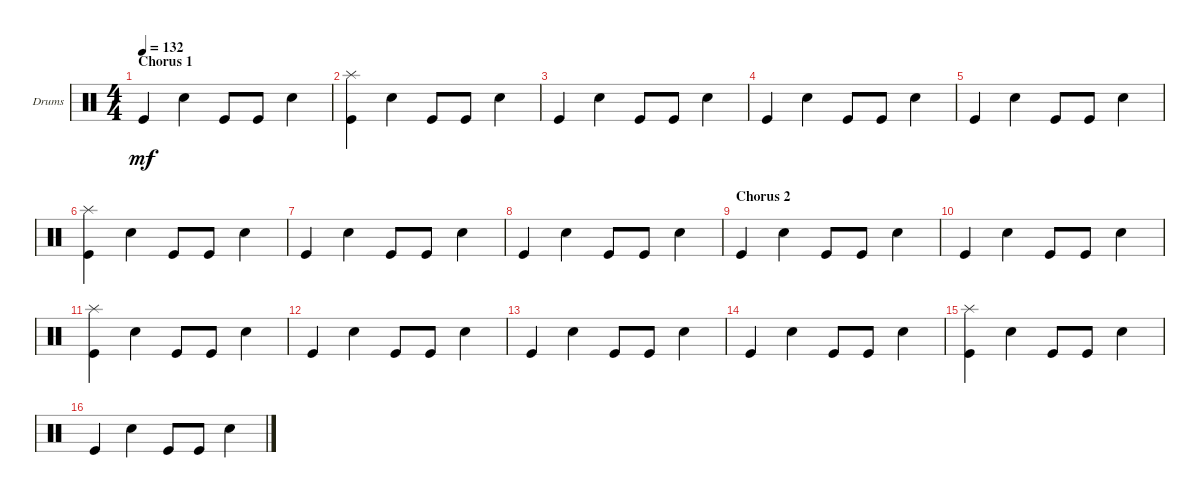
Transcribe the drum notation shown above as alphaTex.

\defaultSystemsLayout 4
\bracketExtendMode groupsimilarinstruments
\firstSystemTrackNameOrientation horizontal
\otherSystemsTrackNameOrientation horizontal
\track ("Drumkit" "Drums") {instrument percussion}
\staff {score}
\articulation defaults
\ts (4 4)
\section ("" "Chorus 1")
\tempo 132
\clef neutral
\scale
0.333333
\ks c "Kick (hit)".4{dy mf} "Snare (hit) 2".4 "Kick (hit)".8 "Kick (hit)".8 "Snare (hit) 2".4
|
\scale
0.333333 ("Kick (hit)" "Splash (hit)").4 "Snare (hit) 2".4 "Kick (hit)".8 "Kick (hit)".8 "Snare (hit) 2".4 |
\scale
0.333333 "Kick (hit)".4 "Snare (hit) 2".4 "Kick (hit)".8 "Kick (hit)".8 "Snare (hit) 2".4 |
\scale
0.333333 "Kick (hit)".4 "Snare (hit) 2".4 "Kick (hit)".8 "Kick (hit)".8 "Snare (hit) 2".4 |
\scale
0.333333 "Kick (hit)".4 "Snare (hit) 2".4 "Kick (hit)".8 "Kick (hit)".8 "Snare (hit) 2".4 |
\scale
0.333333 ("Kick (hit)" "Splash (hit)").4 "Snare (hit) 2".4 "Kick (hit)".8 "Kick (hit)".8 "Snare (hit) 2".4 |
\scale
0.333333 "Kick (hit)".4 "Snare (hit) 2".4 "Kick (hit)".8 "Kick (hit)".8 "Snare (hit) 2".4 |
\scale
0.333333 "Kick (hit)".4 "Snare (hit) 2".4 "Kick (hit)".8 "Kick (hit)".8 "Snare (hit) 2".4 |
\section ("" "Chorus 2")
\scale
0.333333 "Kick (hit)".4 "Snare (hit) 2".4 "Kick (hit)".8 "Kick (hit)".8 "Snare (hit) 2".4 |
\scale
0.333333 "Kick (hit)".4 "Snare (hit) 2".4 "Kick (hit)".8 "Kick (hit)".8 "Snare (hit) 2".4 |
\scale
0.333333 ("Kick (hit)" "Splash (hit)").4 "Snare (hit) 2".4 "Kick (hit)".8 "Kick (hit)".8 "Snare (hit) 2".4 |
\scale
0.333333 "Kick (hit)".4 "Snare (hit) 2".4 "Kick (hit)".8 "Kick (hit)".8 "Snare (hit) 2".4 |
\scale
0.333333 "Kick (hit)".4 "Snare (hit) 2".4 "Kick (hit)".8 "Kick (hit)".8 "Snare (hit) 2".4 |
\scale
0.333333 "Kick (hit)".4 "Snare (hit) 2".4 "Kick (hit)".8 "Kick (hit)".8 "Snare (hit) 2".4 |
\scale
0.333333 ("Kick (hit)" "Splash (hit)").4 "Snare (hit) 2".4 "Kick (hit)".8 "Kick (hit)".8 "Snare (hit) 2".4 |
\scale
0.333333 "Kick (hit)".4 "Snare (hit) 2".4 "Kick (hit)".8 "Kick (hit)".8 "Snare (hit) 2".4
